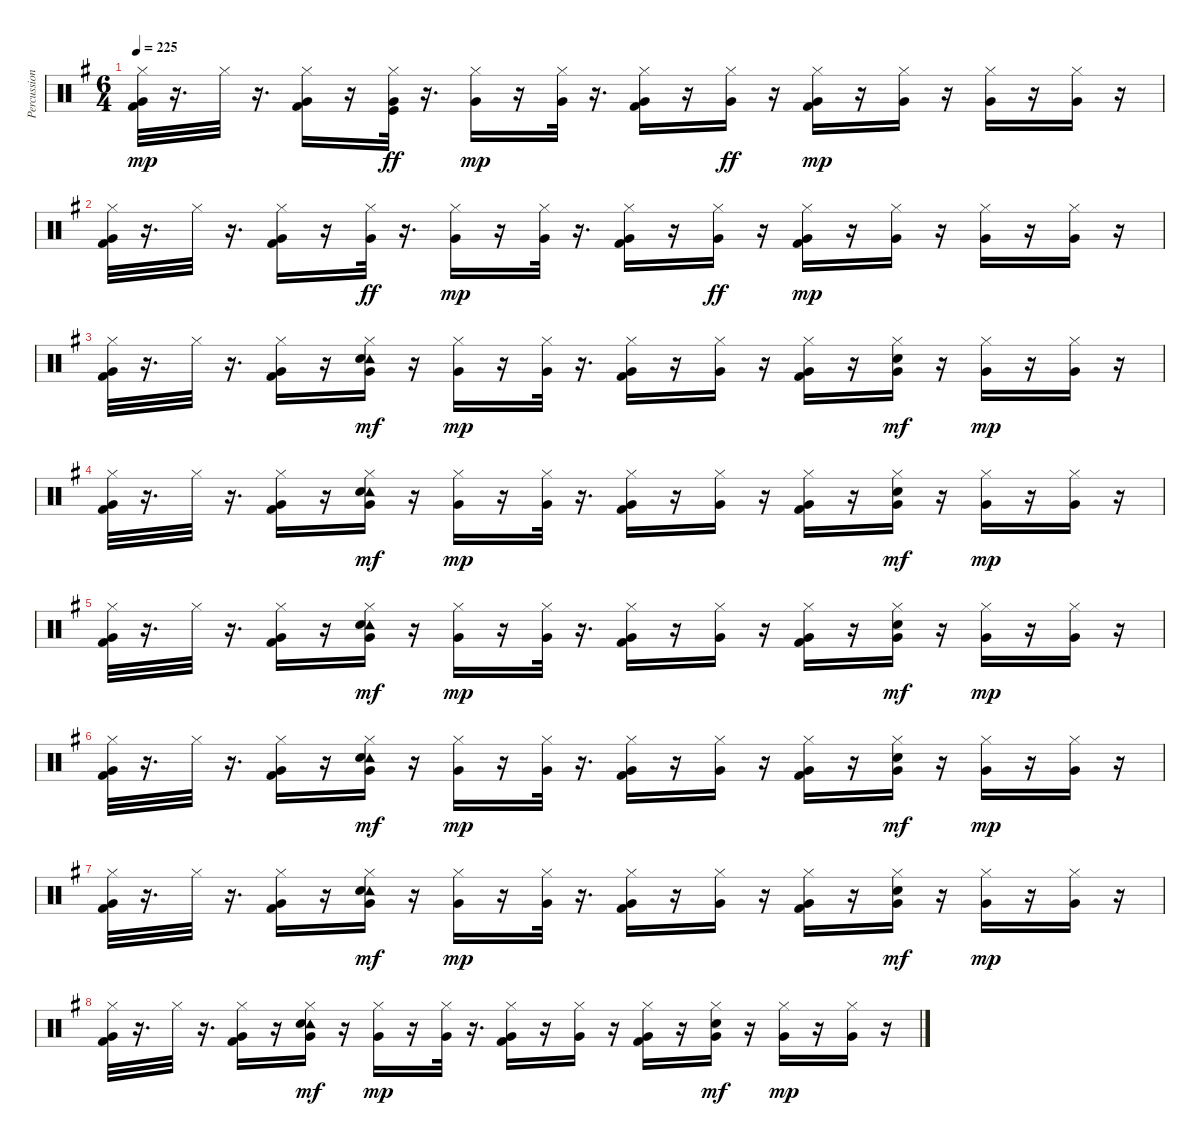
\track ("Percussion" "Percussion") {instrument percussion}
\staff {score}
\articulation defaults
\ts (6 4)
\tempo 225
\clef neutral
\ks eminor
("Hi-Hat (closed)" "Very Low Tom (hit)" "Kick (hit) 2").32{dy mp} r.16{d} "Hi-Hat (closed)".32 r.16{d} ("Hi-Hat (closed)" "Very Low Tom (hit)" "Kick (hit) 2").16 r.16 ("Hi-Hat (closed)" "Very Low Tom (hit)" "Kick (hit)").32{dy ff} r.16{d} ("Hi-Hat (closed)" "Very Low Tom (hit)").16{dy mp} r.16 ("Hi-Hat (closed)" "Very Low Tom (hit)").32 r.16{d} ("Hi-Hat (closed)" "Very Low Tom (hit)" "Kick (hit) 2").16 r.16 ("Hi-Hat (closed)" "Very Low Tom (hit)").16{dy ff} r.16 ("Hi-Hat (closed)" "Very Low Tom (hit)" "Kick (hit) 2").16{dy mp} r.16 ("Hi-Hat (closed)" "Very Low Tom (hit)").16 r.16 ("Hi-Hat (closed)" "Very Low Tom (hit)").16 r.16 ("Hi-Hat (closed)" "Very Low Tom (hit)").16 r.16 |
("Hi-Hat (closed)" "Very Low Tom (hit)" "Kick (hit) 2").32 r.16{d} "Hi-Hat (closed)".32 r.16{d} ("Hi-Hat (closed)" "Very Low Tom (hit)" "Kick (hit) 2").16 r.16 ("Hi-Hat (closed)" "Very Low Tom (hit)").32{dy ff} r.16{d} ("Hi-Hat (closed)" "Very Low Tom (hit)").16{dy mp} r.16 ("Hi-Hat (closed)" "Very Low Tom (hit)").32 r.16{d} ("Hi-Hat (closed)" "Very Low Tom (hit)" "Kick (hit) 2").16 r.16 ("Hi-Hat (closed)" "Very Low Tom (hit)").16{dy ff} r.16 ("Hi-Hat (closed)" "Very Low Tom (hit)" "Kick (hit) 2").16{dy mp} r.16 ("Hi-Hat (closed)" "Very Low Tom (hit)").16 r.16 ("Hi-Hat (closed)" "Very Low Tom (hit)").16 r.16 ("Hi-Hat (closed)" "Very Low Tom (hit)").16 r.16 |
("Hi-Hat (closed)" "Very Low Tom (hit)" "Kick (hit) 2").32 r.16{d} "Hi-Hat (closed)".32 r.16{d} ("Hi-Hat (closed)" "Very Low Tom (hit)" "Kick (hit) 2").16 r.16 ("Hi-Hat (closed)" "Very Low Tom (hit)" "Tambourine (hit)" "Electric Snare (hit)").16{dy mf} r.16 ("Hi-Hat (closed)" "Very Low Tom (hit)").16{dy mp} r.16 ("Hi-Hat (closed)" "Very Low Tom (hit)").32 r.16{d} ("Hi-Hat (closed)" "Very Low Tom (hit)" "Kick (hit) 2").16 r.16 ("Hi-Hat (closed)" "Very Low Tom (hit)").16 r.16 ("Hi-Hat (closed)" "Very Low Tom (hit)" "Kick (hit) 2").16 r.16 ("Hi-Hat (closed)" "Very Low Tom (hit)" "Electric Snare (hit)").16{dy mf} r.16 ("Hi-Hat (closed)" "Very Low Tom (hit)").16{dy mp} r.16 ("Hi-Hat (closed)" "Very Low Tom (hit)").16 r.16 |
("Hi-Hat (closed)" "Very Low Tom (hit)" "Kick (hit) 2").32 r.16{d} "Hi-Hat (closed)".32 r.16{d} ("Hi-Hat (closed)" "Very Low Tom (hit)" "Kick (hit) 2").16 r.16 ("Hi-Hat (closed)" "Very Low Tom (hit)" "Tambourine (hit)" "Electric Snare (hit)").16{dy mf} r.16 ("Hi-Hat (closed)" "Very Low Tom (hit)").16{dy mp} r.16 ("Hi-Hat (closed)" "Very Low Tom (hit)").32 r.16{d} ("Hi-Hat (closed)" "Very Low Tom (hit)" "Kick (hit) 2").16 r.16 ("Hi-Hat (closed)" "Very Low Tom (hit)").16 r.16 ("Hi-Hat (closed)" "Very Low Tom (hit)" "Kick (hit) 2").16 r.16 ("Hi-Hat (closed)" "Very Low Tom (hit)" "Electric Snare (hit)").16{dy mf} r.16 ("Hi-Hat (closed)" "Very Low Tom (hit)").16{dy mp} r.16 ("Hi-Hat (closed)" "Very Low Tom (hit)").16 r.16 |
("Hi-Hat (closed)" "Very Low Tom (hit)" "Kick (hit) 2").32 r.16{d} "Hi-Hat (closed)".32 r.16{d} ("Hi-Hat (closed)" "Very Low Tom (hit)" "Kick (hit) 2").16 r.16 ("Hi-Hat (closed)" "Very Low Tom (hit)" "Tambourine (hit)" "Electric Snare (hit)").16{dy mf} r.16 ("Hi-Hat (closed)" "Very Low Tom (hit)").16{dy mp} r.16 ("Hi-Hat (closed)" "Very Low Tom (hit)").32 r.16{d} ("Hi-Hat (closed)" "Very Low Tom (hit)" "Kick (hit) 2").16 r.16 ("Hi-Hat (closed)" "Very Low Tom (hit)").16 r.16 ("Hi-Hat (closed)" "Very Low Tom (hit)" "Kick (hit) 2").16 r.16 ("Hi-Hat (closed)" "Very Low Tom (hit)" "Electric Snare (hit)").16{dy mf} r.16 ("Hi-Hat (closed)" "Very Low Tom (hit)").16{dy mp} r.16 ("Hi-Hat (closed)" "Very Low Tom (hit)").16 r.16 |
("Hi-Hat (closed)" "Very Low Tom (hit)" "Kick (hit) 2").32 r.16{d} "Hi-Hat (closed)".32 r.16{d} ("Hi-Hat (closed)" "Very Low Tom (hit)" "Kick (hit) 2").16 r.16 ("Hi-Hat (closed)" "Very Low Tom (hit)" "Tambourine (hit)" "Electric Snare (hit)").16{dy mf} r.16 ("Hi-Hat (closed)" "Very Low Tom (hit)").16{dy mp} r.16 ("Hi-Hat (closed)" "Very Low Tom (hit)").32 r.16{d} ("Hi-Hat (closed)" "Very Low Tom (hit)" "Kick (hit) 2").16 r.16 ("Hi-Hat (closed)" "Very Low Tom (hit)").16 r.16 ("Hi-Hat (closed)" "Very Low Tom (hit)" "Kick (hit) 2").16 r.16 ("Hi-Hat (closed)" "Very Low Tom (hit)" "Electric Snare (hit)").16{dy mf} r.16 ("Hi-Hat (closed)" "Very Low Tom (hit)").16{dy mp} r.16 ("Hi-Hat (closed)" "Very Low Tom (hit)").16 r.16 |
("Hi-Hat (closed)" "Very Low Tom (hit)" "Kick (hit) 2").32 r.16{d} "Hi-Hat (closed)".32 r.16{d} ("Hi-Hat (closed)" "Very Low Tom (hit)" "Kick (hit) 2").16 r.16 ("Hi-Hat (closed)" "Very Low Tom (hit)" "Tambourine (hit)" "Electric Snare (hit)").16{dy mf} r.16 ("Hi-Hat (closed)" "Very Low Tom (hit)").16{dy mp} r.16 ("Hi-Hat (closed)" "Very Low Tom (hit)").32 r.16{d} ("Hi-Hat (closed)" "Very Low Tom (hit)" "Kick (hit) 2").16 r.16 ("Hi-Hat (closed)" "Very Low Tom (hit)").16 r.16 ("Hi-Hat (closed)" "Very Low Tom (hit)" "Kick (hit) 2").16 r.16 ("Hi-Hat (closed)" "Very Low Tom (hit)" "Electric Snare (hit)").16{dy mf} r.16 ("Hi-Hat (closed)" "Very Low Tom (hit)").16{dy mp} r.16 ("Hi-Hat (closed)" "Very Low Tom (hit)").16 r.16 |
("Hi-Hat (closed)" "Very Low Tom (hit)" "Kick (hit) 2").32 r.16{d} "Hi-Hat (closed)".32 r.16{d} ("Hi-Hat (closed)" "Very Low Tom (hit)" "Kick (hit) 2").16 r.16 ("Hi-Hat (closed)" "Very Low Tom (hit)" "Tambourine (hit)" "Electric Snare (hit)").16{dy mf} r.16 ("Hi-Hat (closed)" "Very Low Tom (hit)").16{dy mp} r.16 ("Hi-Hat (closed)" "Very Low Tom (hit)").32 r.16{d} ("Hi-Hat (closed)" "Very Low Tom (hit)" "Kick (hit) 2").16 r.16 ("Hi-Hat (closed)" "Very Low Tom (hit)").16 r.16 ("Hi-Hat (closed)" "Very Low Tom (hit)" "Kick (hit) 2").16 r.16 ("Hi-Hat (closed)" "Very Low Tom (hit)" "Electric Snare (hit)").16{dy mf} r.16 ("Hi-Hat (closed)" "Very Low Tom (hit)").16{dy mp} r.16 ("Hi-Hat (closed)" "Very Low Tom (hit)").16 r.16
